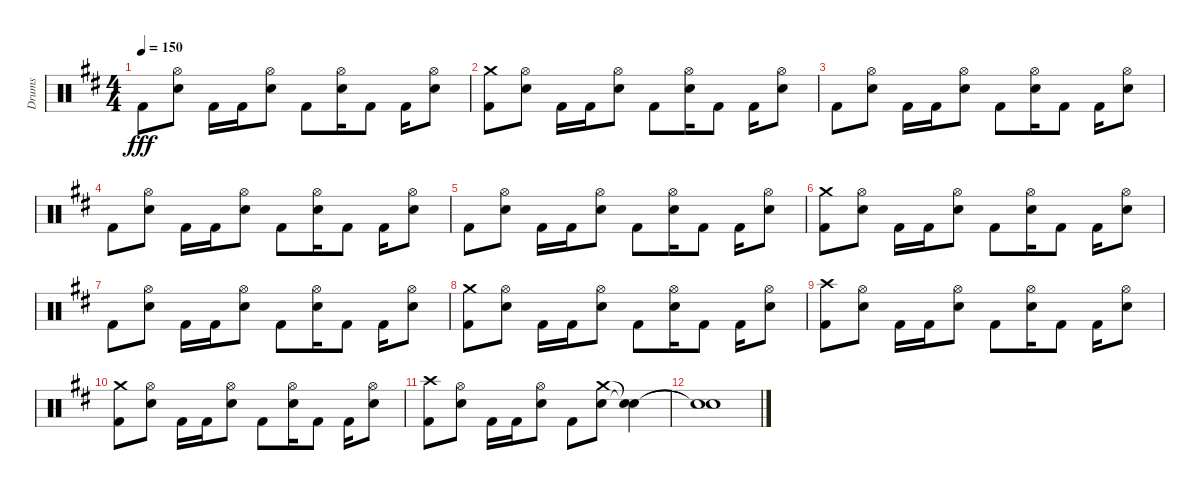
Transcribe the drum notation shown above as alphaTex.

\track ("Drums" "Drums") {instrument percussion}
\staff {score}
\articulation defaults
\ts (4 4)
\tempo 150
\clef neutral
\ks d "Kick (hit) 2".8{dy fff}
("Hi-Hat (open)" "Electric Snare (hit)").8 "Kick (hit) 2".16 "Kick (hit) 2".16 ("Hi-Hat (open)" "Electric Snare (hit)").8 "Kick (hit) 2".8 ("Hi-Hat (open)" "Electric Snare (hit)").16 "Kick (hit) 2".8 "Kick (hit) 2".16 ("Hi-Hat (open)" "Electric Snare (hit)").8 |
("Crash medium (hit)" "Kick (hit) 2").8 ("Hi-Hat (open)" "Electric Snare (hit)").8 "Kick (hit) 2".16 "Kick (hit) 2".16 ("Hi-Hat (open)" "Electric Snare (hit)").8 "Kick (hit) 2".8 ("Hi-Hat (open)" "Electric Snare (hit)").16 "Kick (hit) 2".8 "Kick (hit) 2".16 ("Hi-Hat (open)" "Electric Snare (hit)").8 |
"Kick (hit) 2".8 ("Hi-Hat (open)" "Electric Snare (hit)").8 "Kick (hit) 2".16 "Kick (hit) 2".16 ("Hi-Hat (open)" "Electric Snare (hit)").8 "Kick (hit) 2".8 ("Hi-Hat (open)" "Electric Snare (hit)").16 "Kick (hit) 2".8 "Kick (hit) 2".16 ("Hi-Hat (open)" "Electric Snare (hit)").8 |
"Kick (hit) 2".8 ("Hi-Hat (open)" "Electric Snare (hit)").8 "Kick (hit) 2".16 "Kick (hit) 2".16 ("Hi-Hat (open)" "Electric Snare (hit)").8 "Kick (hit) 2".8 ("Hi-Hat (open)" "Electric Snare (hit)").16 "Kick (hit) 2".8 "Kick (hit) 2".16 ("Hi-Hat (open)" "Electric Snare (hit)").8 |
"Kick (hit) 2".8 ("Hi-Hat (open)" "Electric Snare (hit)").8 "Kick (hit) 2".16 "Kick (hit) 2".16 ("Hi-Hat (open)" "Electric Snare (hit)").8 "Kick (hit) 2".8 ("Hi-Hat (open)" "Electric Snare (hit)").16 "Kick (hit) 2".8 "Kick (hit) 2".16 ("Hi-Hat (open)" "Electric Snare (hit)").8 |
("Crash medium (hit)" "Kick (hit) 2").8 ("Hi-Hat (open)" "Electric Snare (hit)").8 "Kick (hit) 2".16 "Kick (hit) 2".16 ("Hi-Hat (open)" "Electric Snare (hit)").8 "Kick (hit) 2".8 ("Hi-Hat (open)" "Electric Snare (hit)").16 "Kick (hit) 2".8 "Kick (hit) 2".16 ("Hi-Hat (open)" "Electric Snare (hit)").8 |
"Kick (hit) 2".8 ("Hi-Hat (open)" "Electric Snare (hit)").8 "Kick (hit) 2".16 "Kick (hit) 2".16 ("Hi-Hat (open)" "Electric Snare (hit)").8 "Kick (hit) 2".8 ("Hi-Hat (open)" "Electric Snare (hit)").16 "Kick (hit) 2".8 "Kick (hit) 2".16 ("Hi-Hat (open)" "Electric Snare (hit)").8 |
("Crash medium (hit)" "Kick (hit) 2").8 ("Hi-Hat (open)" "Electric Snare (hit)").8 "Kick (hit) 2".16 "Kick (hit) 2".16 ("Hi-Hat (open)" "Electric Snare (hit)").8 "Kick (hit) 2".8 ("Hi-Hat (open)" "Electric Snare (hit)").16 "Kick (hit) 2".8 "Kick (hit) 2".16 ("Hi-Hat (open)" "Electric Snare (hit)").8 |
("Crash high (hit)" "Kick (hit) 2").8 ("Hi-Hat (open)" "Electric Snare (hit)").8 "Kick (hit) 2".16 "Kick (hit) 2".16 ("Hi-Hat (open)" "Electric Snare (hit)").8 "Kick (hit) 2".8 ("Hi-Hat (open)" "Electric Snare (hit)").16 "Kick (hit) 2".8 "Kick (hit) 2".16 ("Hi-Hat (open)" "Electric Snare (hit)").8 |
("Crash medium (hit)" "Kick (hit) 2").8 ("Hi-Hat (open)" "Electric Snare (hit)").8 "Kick (hit) 2".16 "Kick (hit) 2".16 ("Hi-Hat (open)" "Electric Snare (hit)").8 "Kick (hit) 2".8 ("Hi-Hat (open)" "Electric Snare (hit)").16 "Kick (hit) 2".8 "Kick (hit) 2".16 ("Hi-Hat (open)" "Electric Snare (hit)").8 |
("Crash high (hit)" "Kick (hit) 2").8 ("Hi-Hat (open)" "Electric Snare (hit)").8 "Kick (hit) 2".16 "Kick (hit) 2".16 ("Hi-Hat (open)" "Electric Snare (hit)").8 "Kick (hit) 2".8 ("Crash medium (hit)" "Electric Snare (hit)").8 ("Snare (hit)"{t} "Snare (hit)"{t}).4 |
("Snare (hit)"{t} "Snare (hit)"{t}).1
